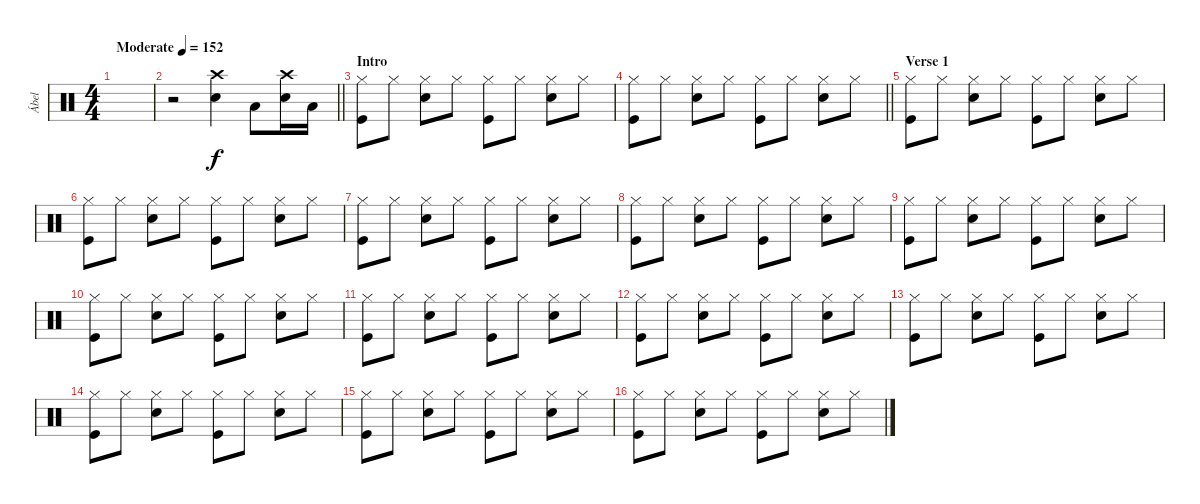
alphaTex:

\track ("Ábel" "Ábel") {instrument percussion}
\staff {score}
\articulation defaults
\ts (4 4)
\tempo (152 "Moderate")
\clef neutral
\ks c
|
\barLineRight lightlight
r.2 ("Snare (hit) 2" "Crash high (hit)").4 "Low Floor Tom (hit)".8 ("Snare (hit) 2" "Crash high (hit)").16 "Low Tom (hit)".16 |
\section ("" "Intro")
("Hi-Hat (closed)" "Kick (hit)").8 "Hi-Hat (closed)".8 ("Hi-Hat (closed)" "Snare (hit) 2").8 "Hi-Hat (closed)".8 ("Hi-Hat (closed)" "Kick (hit)").8 "Hi-Hat (closed)".8 ("Hi-Hat (closed)" "Snare (hit) 2").8 "Hi-Hat (closed)".8 |
\barLineRight lightlight
("Hi-Hat (closed)" "Kick (hit)").8 "Hi-Hat (closed)".8 ("Hi-Hat (closed)" "Snare (hit) 2").8 "Hi-Hat (closed)".8 ("Hi-Hat (closed)" "Kick (hit)").8 "Hi-Hat (closed)".8 ("Hi-Hat (closed)" "Snare (hit) 2").8 "Hi-Hat (closed)".8 |
\section ("" "Verse 1")
("Hi-Hat (closed)" "Kick (hit)").8 "Hi-Hat (closed)".8 ("Hi-Hat (closed)" "Snare (hit) 2").8 "Hi-Hat (closed)".8 ("Hi-Hat (closed)" "Kick (hit)").8 "Hi-Hat (closed)".8 ("Hi-Hat (closed)" "Snare (hit) 2").8 "Hi-Hat (closed)".8 |
("Hi-Hat (closed)" "Kick (hit)").8 "Hi-Hat (closed)".8 ("Hi-Hat (closed)" "Snare (hit) 2").8 "Hi-Hat (closed)".8 ("Hi-Hat (closed)" "Kick (hit)").8 "Hi-Hat (closed)".8 ("Hi-Hat (closed)" "Snare (hit) 2").8 "Hi-Hat (closed)".8 |
("Hi-Hat (closed)" "Kick (hit)").8 "Hi-Hat (closed)".8 ("Hi-Hat (closed)" "Snare (hit) 2").8 "Hi-Hat (closed)".8 ("Hi-Hat (closed)" "Kick (hit)").8 "Hi-Hat (closed)".8 ("Hi-Hat (closed)" "Snare (hit) 2").8 "Hi-Hat (closed)".8 |
("Hi-Hat (closed)" "Kick (hit)").8 "Hi-Hat (closed)".8 ("Hi-Hat (closed)" "Snare (hit) 2").8 "Hi-Hat (closed)".8 ("Hi-Hat (closed)" "Kick (hit)").8 "Hi-Hat (closed)".8 ("Hi-Hat (closed)" "Snare (hit) 2").8 "Hi-Hat (closed)".8 |
("Hi-Hat (closed)" "Kick (hit)").8 "Hi-Hat (closed)".8 ("Hi-Hat (closed)" "Snare (hit) 2").8 "Hi-Hat (closed)".8 ("Hi-Hat (closed)" "Kick (hit)").8 "Hi-Hat (closed)".8 ("Hi-Hat (closed)" "Snare (hit) 2").8 "Hi-Hat (closed)".8 |
("Hi-Hat (closed)" "Kick (hit)").8 "Hi-Hat (closed)".8 ("Hi-Hat (closed)" "Snare (hit) 2").8 "Hi-Hat (closed)".8 ("Hi-Hat (closed)" "Kick (hit)").8 "Hi-Hat (closed)".8 ("Hi-Hat (closed)" "Snare (hit) 2").8 "Hi-Hat (closed)".8 |
("Hi-Hat (closed)" "Kick (hit)").8 "Hi-Hat (closed)".8 ("Hi-Hat (closed)" "Snare (hit) 2").8 "Hi-Hat (closed)".8 ("Hi-Hat (closed)" "Kick (hit)").8 "Hi-Hat (closed)".8 ("Hi-Hat (closed)" "Snare (hit) 2").8 "Hi-Hat (closed)".8 |
("Hi-Hat (closed)" "Kick (hit)").8 "Hi-Hat (closed)".8 ("Hi-Hat (closed)" "Snare (hit) 2").8 "Hi-Hat (closed)".8 ("Hi-Hat (closed)" "Kick (hit)").8 "Hi-Hat (closed)".8 ("Hi-Hat (closed)" "Snare (hit) 2").8 "Hi-Hat (closed)".8 |
("Hi-Hat (closed)" "Kick (hit)").8 "Hi-Hat (closed)".8 ("Hi-Hat (closed)" "Snare (hit) 2").8 "Hi-Hat (closed)".8 ("Hi-Hat (closed)" "Kick (hit)").8 "Hi-Hat (closed)".8 ("Hi-Hat (closed)" "Snare (hit) 2").8 "Hi-Hat (closed)".8 |
("Hi-Hat (closed)" "Kick (hit)").8 "Hi-Hat (closed)".8 ("Hi-Hat (closed)" "Snare (hit) 2").8 "Hi-Hat (closed)".8 ("Hi-Hat (closed)" "Kick (hit)").8 "Hi-Hat (closed)".8 ("Hi-Hat (closed)" "Snare (hit) 2").8 "Hi-Hat (closed)".8 |
("Hi-Hat (closed)" "Kick (hit)").8 "Hi-Hat (closed)".8 ("Hi-Hat (closed)" "Snare (hit) 2").8 "Hi-Hat (closed)".8 ("Hi-Hat (closed)" "Kick (hit)").8 "Hi-Hat (closed)".8 ("Hi-Hat (closed)" "Snare (hit) 2").8 "Hi-Hat (closed)".8 |
("Hi-Hat (closed)" "Kick (hit)").8 "Hi-Hat (closed)".8 ("Hi-Hat (closed)" "Snare (hit) 2").8 "Hi-Hat (closed)".8 ("Hi-Hat (closed)" "Kick (hit)").8 "Hi-Hat (closed)".8 ("Hi-Hat (closed)" "Snare (hit) 2").8 "Hi-Hat (closed)".8
